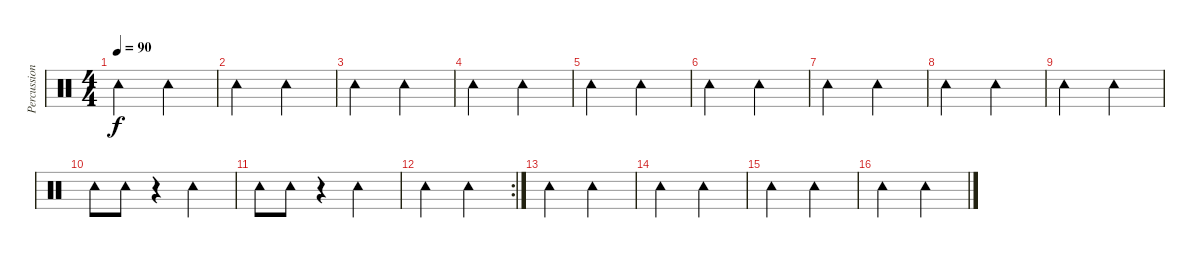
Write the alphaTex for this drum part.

\track ("Percussions" "Percussion") {instrument percussion}
\staff {score}
\articulation defaults
\ts (4 4)
\tempo 90
\clef neutral
\ks c "Tambourine (hit)".2{dy f} "Tambourine (hit)".2
|
"Tambourine (hit)".2 "Tambourine (hit)".2 |
"Tambourine (hit)".2 "Tambourine (hit)".2 |
"Tambourine (hit)".2 "Tambourine (hit)".2 |
"Tambourine (hit)".2 "Tambourine (hit)".2 |
"Tambourine (hit)".2 "Tambourine (hit)".2 |
"Tambourine (hit)".2 "Tambourine (hit)".2 |
"Tambourine (hit)".2 "Tambourine (hit)".2 |
"Tambourine (hit)".2 "Tambourine (hit)".2 |
"Tambourine (hit)".8 "Tambourine (hit)".8 r.4 "Tambourine (hit)".2 |
"Tambourine (hit)".8 "Tambourine (hit)".8 r.4 "Tambourine (hit)".2 |
\rc 2 "Tambourine (hit)".2 "Tambourine (hit)".2
|
"Tambourine (hit)".2 "Tambourine (hit)".2 |
"Tambourine (hit)".2 "Tambourine (hit)".2 |
"Tambourine (hit)".2 "Tambourine (hit)".2 |
"Tambourine (hit)".2 "Tambourine (hit)".2
